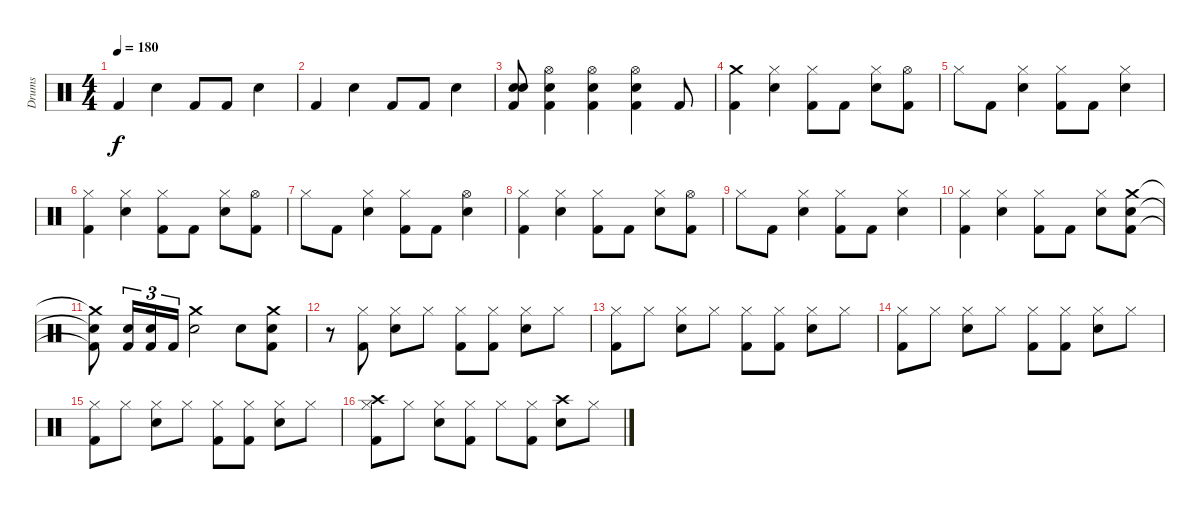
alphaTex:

\track ("Drums" "Drums") {instrument percussion}
\staff {score}
\articulation defaults
\ts (4 4)
\tempo 180
\clef neutral
\ks c "Kick (hit) 2".4{dy f} "Electric Snare (hit)".4 "Kick (hit) 2".8 "Kick (hit) 2".8 "Electric Snare (hit)".4
|
"Kick (hit) 2".4 "Electric Snare (hit)".4 "Kick (hit) 2".8 "Kick (hit) 2".8 "Electric Snare (hit)".4 |
("Electric Snare (hit)" "Electric Snare (hit)" "Kick (hit) 2").8 ("Hi-Hat (open)" "Electric Snare (hit)" "Kick (hit) 2").4 ("Hi-Hat (open)" "Electric Snare (hit)" "Kick (hit) 2").4 ("Hi-Hat (open)" "Electric Snare (hit)" "Kick (hit) 2").4 "Kick (hit) 2".8 |
\section ("" "")
("Crash medium (hit)" "Kick (hit) 2").4 ("Hi-Hat (closed)" "Electric Snare (hit)").4 ("Hi-Hat (closed)" "Kick (hit) 2").8 "Kick (hit) 2".8 ("Hi-Hat (closed)" "Electric Snare (hit)").8 ("Hi-Hat (open)" "Kick (hit) 2").8 |
"Hi-Hat (closed)".8 "Kick (hit) 2".8 ("Hi-Hat (closed)" "Electric Snare (hit)").4 ("Hi-Hat (closed)" "Kick (hit) 2").8 "Kick (hit) 2".8 ("Hi-Hat (closed)" "Electric Snare (hit)").4 |
("Hi-Hat (closed)" "Kick (hit) 2").4 ("Hi-Hat (closed)" "Electric Snare (hit)").4 ("Hi-Hat (closed)" "Kick (hit) 2").8 "Kick (hit) 2".8 ("Hi-Hat (closed)" "Electric Snare (hit)").8 ("Hi-Hat (open)" "Kick (hit) 2").8 |
"Hi-Hat (closed)".8 "Kick (hit) 2".8 ("Hi-Hat (closed)" "Electric Snare (hit)").4 ("Hi-Hat (closed)" "Kick (hit) 2").8 "Kick (hit) 2".8 ("Hi-Hat (open)" "Electric Snare (hit)").4 |
("Hi-Hat (closed)" "Kick (hit) 2").4 ("Hi-Hat (closed)" "Electric Snare (hit)").4 ("Hi-Hat (closed)" "Kick (hit) 2").8 "Kick (hit) 2".8 ("Hi-Hat (closed)" "Electric Snare (hit)").8 ("Hi-Hat (open)" "Kick (hit) 2").8 |
"Hi-Hat (closed)".8 "Kick (hit) 2".8 ("Hi-Hat (closed)" "Electric Snare (hit)").4 ("Hi-Hat (closed)" "Kick (hit) 2").8 "Kick (hit) 2".8 ("Hi-Hat (closed)" "Electric Snare (hit)").4 |
("Hi-Hat (closed)" "Kick (hit) 2").4 ("Hi-Hat (closed)" "Electric Snare (hit)").4 ("Hi-Hat (closed)" "Kick (hit) 2").8 "Kick (hit) 2".8 ("Hi-Hat (closed)" "Electric Snare (hit)").8 ("Crash medium (hit)" "Electric Snare (hit)" "Kick (hit) 2").8 |
("Crash medium (hit)"{t} "Electric Snare (hit)"{t} "Kick (hit) 2"{t}).8 ("Electric Snare (hit)" "Kick (hit) 2").16{tu (3 2)} ("Electric Snare (hit)" "Kick (hit) 2").16{tu (3 2)} "Kick (hit) 2".16{tu (3 2)} ("Crash medium (hit)" "Electric Snare (hit)").2 "Electric Snare (hit)".8 ("Crash medium (hit)" "Electric Snare (hit)" "Kick (hit) 2").8 |
\section ("" "")
r.8 ("Hi-Hat (closed)" "Kick (hit) 2").8 ("Hi-Hat (closed)" "Electric Snare (hit)").8 "Hi-Hat (closed)".8 ("Hi-Hat (closed)" "Kick (hit) 2").8 ("Hi-Hat (closed)" "Kick (hit) 2").8 ("Hi-Hat (closed)" "Electric Snare (hit)").8 "Hi-Hat (closed)".8 |
("Hi-Hat (closed)" "Kick (hit) 2").8 "Hi-Hat (closed)".8 ("Hi-Hat (closed)" "Electric Snare (hit)").8 "Hi-Hat (closed)".8 ("Hi-Hat (closed)" "Kick (hit) 2").8 ("Hi-Hat (closed)" "Kick (hit) 2").8 ("Hi-Hat (closed)" "Electric Snare (hit)").8 "Hi-Hat (closed)".8 |
("Hi-Hat (closed)" "Kick (hit) 2").8 "Hi-Hat (closed)".8 ("Hi-Hat (closed)" "Electric Snare (hit)").8 "Hi-Hat (closed)".8 ("Hi-Hat (closed)" "Kick (hit) 2").8 ("Hi-Hat (closed)" "Kick (hit) 2").8 ("Hi-Hat (closed)" "Electric Snare (hit)").8 "Hi-Hat (closed)".8 |
("Hi-Hat (closed)" "Kick (hit) 2").8 "Hi-Hat (closed)".8 ("Hi-Hat (closed)" "Electric Snare (hit)").8 "Hi-Hat (closed)".8 ("Hi-Hat (closed)" "Kick (hit) 2").8 ("Hi-Hat (closed)" "Kick (hit) 2").8 ("Hi-Hat (closed)" "Electric Snare (hit)").8 "Hi-Hat (closed)".8 |
("Crash high (hit)" "Hi-Hat (closed)" "Kick (hit) 2").8 "Hi-Hat (closed)".8 ("Hi-Hat (closed)" "Electric Snare (hit)").8 ("Hi-Hat (closed)" "Kick (hit) 2").8 "Hi-Hat (closed)".8 ("Hi-Hat (closed)" "Kick (hit) 2").8 ("Crash high (hit)" "Electric Snare (hit)").8 "Hi-Hat (closed)".8
